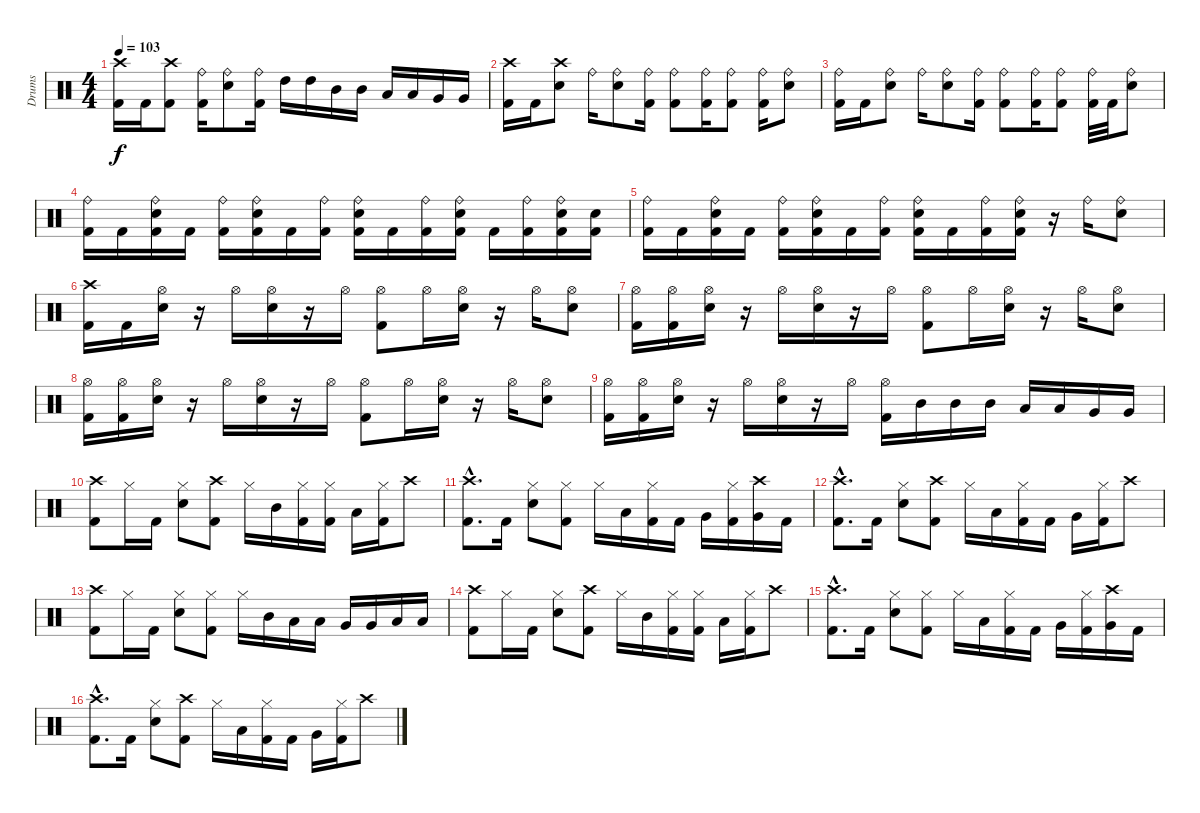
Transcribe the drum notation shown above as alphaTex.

\track ("Drums" "Drums") {instrument percussion}
\staff {score}
\articulation defaults
\ts (4 4)
\tempo 103
\clef neutral
\ks c
("Crash high (hit)" "Kick (hit) 2").16{dy f} "Kick (hit) 2".16 ("Crash high (hit)" "Kick (hit) 2").8 ("Ride (bell)" "Kick (hit) 2").16 ("Ride (bell)" "Electric Snare (hit)").8 ("Ride (bell)" "Kick (hit) 2").16 "High Tom (hit)".16 "High Tom (hit)".16 "Mid Tom (hit)".16 "Mid Tom (hit)".16 "Low Tom (hit)".16 "Low Tom (hit)".16 "Very Low Tom (hit)".16 "Very Low Tom (hit)".16 |
("Crash high (hit)" "Kick (hit) 2").16 "Kick (hit) 2".16 ("Crash high (hit)" "Electric Snare (hit)").8 "Ride (bell)".16 ("Ride (bell)" "Electric Snare (hit)").8 ("Ride (bell)" "Kick (hit) 2").16 ("Ride (bell)" "Kick (hit) 2").8 ("Ride (bell)" "Kick (hit) 2").16 ("Ride (bell)" "Kick (hit) 2").8 ("Ride (bell)" "Kick (hit) 2").16 ("Ride (bell)" "Electric Snare (hit)").8 |
("Ride (bell)" "Kick (hit) 2").16 "Kick (hit) 2".16 ("Ride (bell)" "Electric Snare (hit)").8 "Ride (bell)".16 ("Ride (bell)" "Electric Snare (hit)").8 ("Ride (bell)" "Kick (hit) 2").16 ("Ride (bell)" "Kick (hit) 2").8 ("Ride (bell)" "Kick (hit) 2").16 ("Ride (bell)" "Kick (hit) 2").8 ("Ride (bell)" "Kick (hit) 2").32 "Kick (hit) 2".32 ("Ride (bell)" "Electric Snare (hit)").8 |
("Ride (bell)" "Kick (hit) 2").16 "Kick (hit) 2".16 ("Ride (bell)" "Electric Snare (hit)" "Kick (hit) 2").16 "Kick (hit) 2".16 ("Ride (bell)" "Kick (hit) 2").16 ("Ride (bell)" "Electric Snare (hit)" "Kick (hit) 2").16 "Kick (hit) 2".16 ("Ride (bell)" "Kick (hit) 2").16 ("Ride (bell)" "Electric Snare (hit)" "Kick (hit) 2").16 "Kick (hit) 2".16 ("Ride (bell)" "Kick (hit) 2").16 ("Ride (bell)" "Electric Snare (hit)" "Kick (hit) 2").16 "Kick (hit) 2".16 ("Ride (bell)" "Kick (hit) 2").16 ("Ride (bell)" "Electric Snare (hit)" "Kick (hit) 2").16 ("Electric Snare (hit)" "Kick (hit) 2").16 |
("Ride (bell)" "Kick (hit) 2").16 "Kick (hit) 2".16 ("Ride (bell)" "Electric Snare (hit)" "Kick (hit) 2").16 "Kick (hit) 2".16 ("Ride (bell)" "Kick (hit) 2").16 ("Ride (bell)" "Electric Snare (hit)" "Kick (hit) 2").16 "Kick (hit) 2".16 ("Ride (bell)" "Kick (hit) 2").16 ("Ride (bell)" "Electric Snare (hit)" "Kick (hit) 2").16 "Kick (hit) 2".16 ("Ride (bell)" "Kick (hit) 2").16 ("Ride (bell)" "Electric Snare (hit)" "Kick (hit) 2").16 r.16 "Ride (bell)".16 ("Ride (bell)" "Electric Snare (hit)").8 |
("Crash high (hit)" "Kick (hit) 2").16 "Kick (hit) 2".16 ("Hi-Hat (open)" "Electric Snare (hit)").16 r.16 "Hi-Hat (open)".16 ("Hi-Hat (open)" "Electric Snare (hit)").16 r.16 "Hi-Hat (open)".16 ("Hi-Hat (open)" "Kick (hit) 2").8 "Hi-Hat (open)".16 ("Hi-Hat (open)" "Electric Snare (hit)").16 r.16 "Hi-Hat (open)".16 ("Hi-Hat (open)" "Electric Snare (hit)").8 |
("Hi-Hat (open)" "Kick (hit) 2").16 ("Hi-Hat (open)" "Kick (hit) 2").16 ("Hi-Hat (open)" "Electric Snare (hit)").16 r.16 "Hi-Hat (open)".16 ("Hi-Hat (open)" "Electric Snare (hit)").16 r.16 "Hi-Hat (open)".16 ("Hi-Hat (open)" "Kick (hit) 2").8 "Hi-Hat (open)".16 ("Hi-Hat (open)" "Electric Snare (hit)").16 r.16 "Hi-Hat (open)".16 ("Hi-Hat (open)" "Electric Snare (hit)").8 |
("Hi-Hat (open)" "Kick (hit) 2").16 ("Hi-Hat (open)" "Kick (hit) 2").16 ("Hi-Hat (open)" "Electric Snare (hit)").16 r.16 "Hi-Hat (open)".16 ("Hi-Hat (open)" "Electric Snare (hit)").16 r.16 "Hi-Hat (open)".16 ("Hi-Hat (open)" "Kick (hit) 2").8 "Hi-Hat (open)".16 ("Hi-Hat (open)" "Electric Snare (hit)").16 r.16 "Hi-Hat (open)".16 ("Hi-Hat (open)" "Electric Snare (hit)").8 |
("Hi-Hat (open)" "Kick (hit) 2").16 ("Hi-Hat (open)" "Kick (hit) 2").16 ("Hi-Hat (open)" "Electric Snare (hit)").16 r.16 "Hi-Hat (open)".16 ("Hi-Hat (open)" "Electric Snare (hit)").16 r.16 "Hi-Hat (open)".16 ("Hi-Hat (open)" "Kick (hit) 2").16 "Mid Tom (hit)".16 "Mid Tom (hit)".16 "Mid Tom (hit)".16 "Low Tom (hit)".16 "Low Tom (hit)".16 "Very Low Tom (hit)".16 "Very Low Tom (hit)".16 |
("Crash high (hit)" "Kick (hit) 2").8 "Hi-Hat (closed)".16 "Kick (hit) 2".16 ("Hi-Hat (closed)" "Electric Snare (hit)").8 ("Crash high (hit)" "Kick (hit) 2").8 "Hi-Hat (closed)".16 "Mid Tom (hit)".16 ("Hi-Hat (closed)" "Kick (hit) 2").16 ("Hi-Hat (closed)" "Kick (hit) 2").16 "Low Tom (hit)".16 ("Hi-Hat (closed)" "Kick (hit) 2").16 "Crash high (hit)".8 |
("Crash high (hit)"{hac} "Kick (hit) 2"{hac}).8{d} "Kick (hit) 2".16 ("Hi-Hat (closed)" "Electric Snare (hit)").8 ("Hi-Hat (closed)" "Kick (hit) 2").8 "Hi-Hat (closed)".16 "Low Tom (hit)".16 ("Hi-Hat (closed)" "Kick (hit) 2").16 "Kick (hit) 2".16 "Very Low Tom (hit)".16 ("Hi-Hat (closed)" "Kick (hit) 2").16 ("Crash high (hit)" "Very Low Tom (hit)").16 "Kick (hit) 2".16 |
("Crash high (hit)"{hac} "Kick (hit) 2"{hac}).8{d} "Kick (hit) 2".16 ("Hi-Hat (closed)" "Electric Snare (hit)").8 ("Crash high (hit)" "Kick (hit) 2").8 "Hi-Hat (closed)".16 "Low Tom (hit)".16 ("Hi-Hat (closed)" "Kick (hit) 2").16 "Kick (hit) 2".16 "Very Low Tom (hit)".16 ("Hi-Hat (closed)" "Kick (hit) 2").16 "Crash high (hit)".8 |
("Crash high (hit)" "Kick (hit) 2").8 "Hi-Hat (closed)".16 "Kick (hit) 2".16 ("Hi-Hat (closed)" "Electric Snare (hit)").8 ("Hi-Hat (closed)" "Kick (hit) 2").8 "Hi-Hat (closed)".16 "Mid Tom (hit)".16 "Low Tom (hit)".16 "Low Tom (hit)".16 "Very Low Tom (hit)".16 "Very Low Tom (hit)".16 "Low Floor Tom (hit)".16 "Low Floor Tom (hit)".16 |
("Crash high (hit)" "Kick (hit) 2").8 "Hi-Hat (closed)".16 "Kick (hit) 2".16 ("Hi-Hat (closed)" "Electric Snare (hit)").8 ("Crash high (hit)" "Kick (hit) 2").8 "Hi-Hat (closed)".16 "Mid Tom (hit)".16 ("Hi-Hat (closed)" "Kick (hit) 2").16 ("Hi-Hat (closed)" "Kick (hit) 2").16 "Low Tom (hit)".16 ("Hi-Hat (closed)" "Kick (hit) 2").16 "Crash high (hit)".8 |
("Crash high (hit)"{hac} "Kick (hit) 2"{hac}).8{d} "Kick (hit) 2".16 ("Hi-Hat (closed)" "Electric Snare (hit)").8 ("Hi-Hat (closed)" "Kick (hit) 2").8 "Hi-Hat (closed)".16 "Low Tom (hit)".16 ("Hi-Hat (closed)" "Kick (hit) 2").16 "Kick (hit) 2".16 "Very Low Tom (hit)".16 ("Hi-Hat (closed)" "Kick (hit) 2").16 ("Crash high (hit)" "Very Low Tom (hit)").16 "Kick (hit) 2".16 |
("Crash high (hit)"{hac} "Kick (hit) 2"{hac}).8{d} "Kick (hit) 2".16 ("Hi-Hat (closed)" "Electric Snare (hit)").8 ("Crash high (hit)" "Kick (hit) 2").8 "Hi-Hat (closed)".16 "Low Tom (hit)".16 ("Hi-Hat (closed)" "Kick (hit) 2").16 "Kick (hit) 2".16 "Very Low Tom (hit)".16 ("Hi-Hat (closed)" "Kick (hit) 2").16 "Crash high (hit)".8
